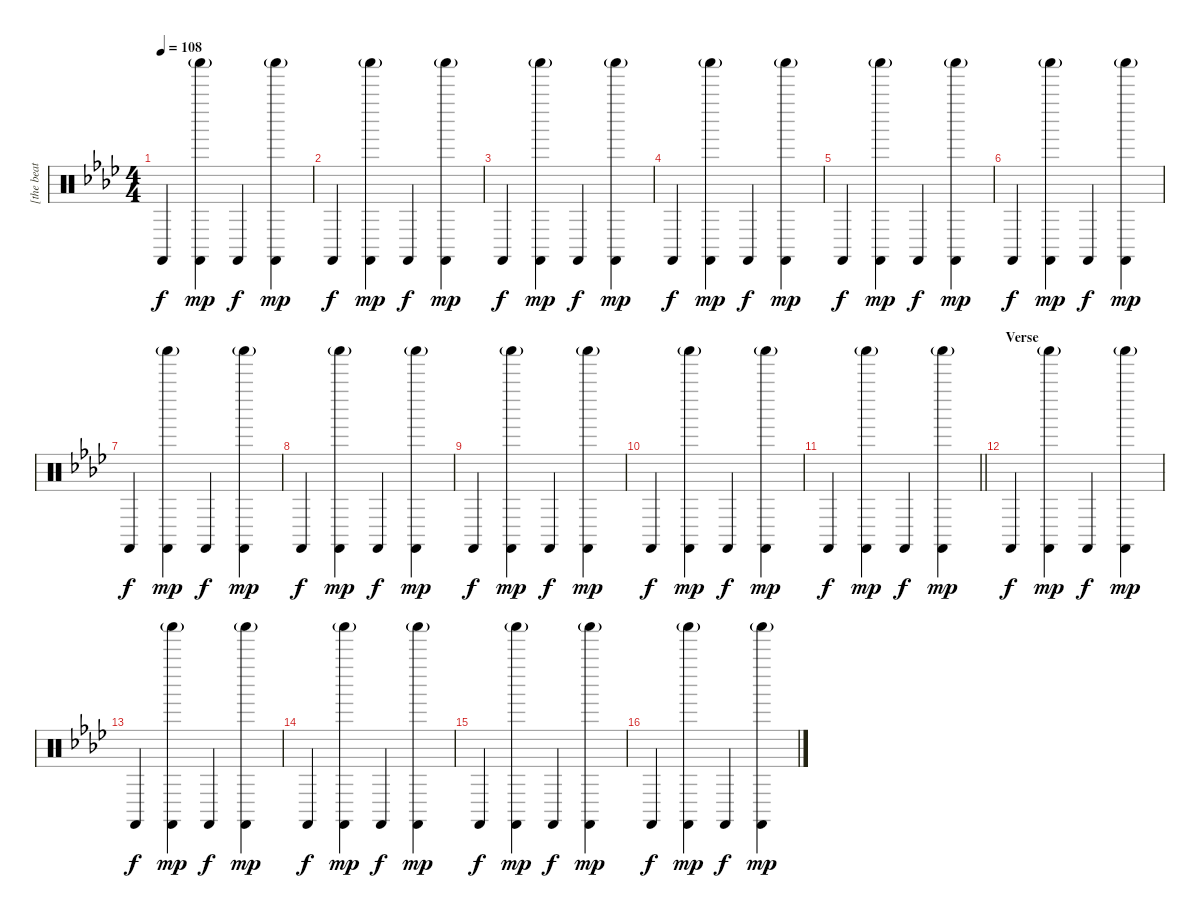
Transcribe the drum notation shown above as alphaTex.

\track (" [the beat]" " [the beat") {instrument percussion}
\staff {score}
\articulation defaults
\ts (4 4)
\tempo 108
\clef neutral
\ks fminor "Castanets (hit)".4{dy f}
("Castanets (hit)" "Shaker (hit)"{g}).4{dy mp} "Castanets (hit)".4{dy f} ("Castanets (hit)" "Shaker (hit)"{g}).4{dy mp} |
"Castanets (hit)".4{dy f} ("Castanets (hit)" "Shaker (hit)"{g}).4{dy mp} "Castanets (hit)".4{dy f} ("Castanets (hit)" "Shaker (hit)"{g}).4{dy mp} |
"Castanets (hit)".4{dy f} ("Castanets (hit)" "Shaker (hit)"{g}).4{dy mp} "Castanets (hit)".4{dy f} ("Castanets (hit)" "Shaker (hit)"{g}).4{dy mp} |
"Castanets (hit)".4{dy f} ("Castanets (hit)" "Shaker (hit)"{g}).4{dy mp} "Castanets (hit)".4{dy f} ("Castanets (hit)" "Shaker (hit)"{g}).4{dy mp} |
"Castanets (hit)".4{dy f} ("Castanets (hit)" "Shaker (hit)"{g}).4{dy mp} "Castanets (hit)".4{dy f} ("Castanets (hit)" "Shaker (hit)"{g}).4{dy mp} |
"Castanets (hit)".4{dy f} ("Castanets (hit)" "Shaker (hit)"{g}).4{dy mp} "Castanets (hit)".4{dy f} ("Castanets (hit)" "Shaker (hit)"{g}).4{dy mp} |
"Castanets (hit)".4{dy f} ("Castanets (hit)" "Shaker (hit)"{g}).4{dy mp} "Castanets (hit)".4{dy f} ("Castanets (hit)" "Shaker (hit)"{g}).4{dy mp} |
"Castanets (hit)".4{dy f} ("Castanets (hit)" "Shaker (hit)"{g}).4{dy mp} "Castanets (hit)".4{dy f} ("Castanets (hit)" "Shaker (hit)"{g}).4{dy mp} |
"Castanets (hit)".4{dy f} ("Castanets (hit)" "Shaker (hit)"{g}).4{dy mp} "Castanets (hit)".4{dy f} ("Castanets (hit)" "Shaker (hit)"{g}).4{dy mp} |
"Castanets (hit)".4{dy f} ("Castanets (hit)" "Shaker (hit)"{g}).4{dy mp} "Castanets (hit)".4{dy f} ("Castanets (hit)" "Shaker (hit)"{g}).4{dy mp} |
\barLineRight lightlight "Castanets (hit)".4{dy f}
("Castanets (hit)" "Shaker (hit)"{g}).4{dy mp} "Castanets (hit)".4{dy f} ("Castanets (hit)" "Shaker (hit)"{g}).4{dy mp} |
\section ("" "Verse")
"Castanets (hit)".4{dy f} ("Castanets (hit)" "Shaker (hit)"{g}).4{dy mp} "Castanets (hit)".4{dy f} ("Castanets (hit)" "Shaker (hit)"{g}).4{dy mp} |
"Castanets (hit)".4{dy f} ("Castanets (hit)" "Shaker (hit)"{g}).4{dy mp} "Castanets (hit)".4{dy f} ("Castanets (hit)" "Shaker (hit)"{g}).4{dy mp} |
"Castanets (hit)".4{dy f} ("Castanets (hit)" "Shaker (hit)"{g}).4{dy mp} "Castanets (hit)".4{dy f} ("Castanets (hit)" "Shaker (hit)"{g}).4{dy mp} |
"Castanets (hit)".4{dy f} ("Castanets (hit)" "Shaker (hit)"{g}).4{dy mp} "Castanets (hit)".4{dy f} ("Castanets (hit)" "Shaker (hit)"{g}).4{dy mp} |
"Castanets (hit)".4{dy f} ("Castanets (hit)" "Shaker (hit)"{g}).4{dy mp} "Castanets (hit)".4{dy f} ("Castanets (hit)" "Shaker (hit)"{g}).4{dy mp}
